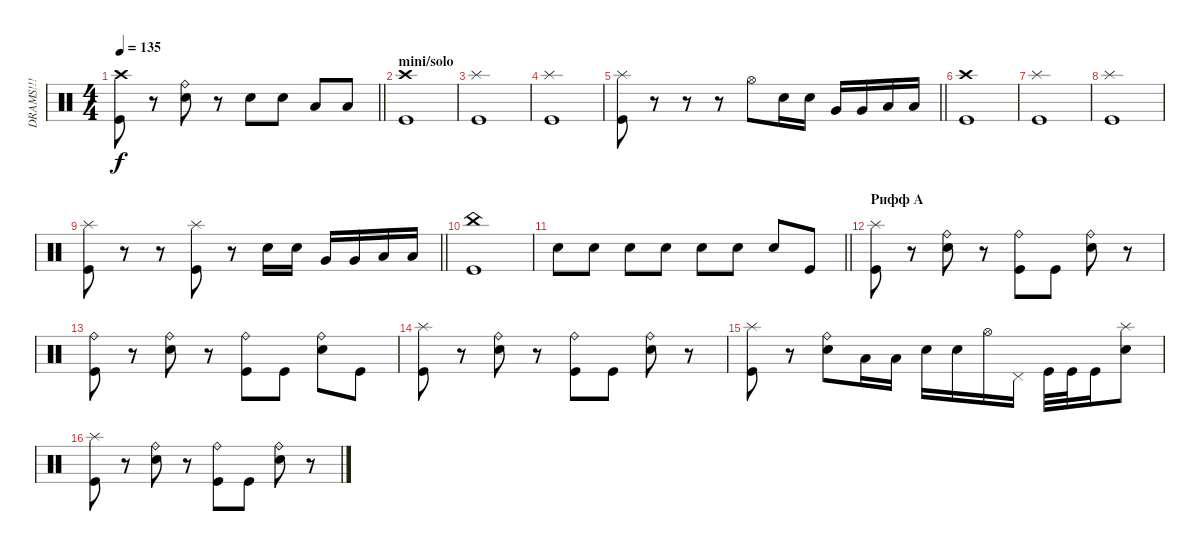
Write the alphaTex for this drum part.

\track ("DRAMS!!!" "DRAMS!!!") {instrument percussion}
\staff {score}
\articulation defaults
\ts (4 4)
\tempo 135
\clef neutral
\barLineRight lightlight
\ks c
("Kick (hit)" "Crash high (hit)").8{dy f} r.8 ("Electric Snare (hit)" "Ride (bell)").8 r.8 "Electric Snare (hit)".8 "Electric Snare (hit)".8 "Low Tom (hit)".8 "Low Tom (hit)".8 |
\section ("" "mini/solo")
("Kick (hit)" "Crash high (hit)").1 |
("Kick (hit)" "Splash (hit)").1 |
("Kick (hit)" "Splash (hit)").1 |
\barLineRight lightlight
("Kick (hit)" "Splash (hit)").8 r.8 r.8 r.8 "Hi-Hat (open)".8 "Electric Snare (hit)".16 "Electric Snare (hit)".16 "Very Low Tom (hit)".16 "Very Low Tom (hit)".16 "Low Tom (hit)".16 "Low Tom (hit)".16 |
("Kick (hit)" "Crash high (hit)").1 |
("Kick (hit)" "Splash (hit)").1 |
("Kick (hit)" "Splash (hit)").1 |
\barLineRight lightlight
("Kick (hit)" "Splash (hit)").8 r.8 r.8 ("Kick (hit)" "Splash (hit)").8 r.8 "Electric Snare (hit)".16 "Electric Snare (hit)".16 "Very Low Tom (hit)".16 "Very Low Tom (hit)".16 "Low Tom (hit)".16 "Low Tom (hit)".16 |
\section ("" "")
("Kick (hit)" "China (hit)").1 |
\barLineRight lightlight "Electric Snare (hit)".8 "Electric Snare (hit)".8 "Electric Snare (hit)".8 "Electric Snare (hit)".8 "Electric Snare (hit)".8 "Electric Snare (hit)".8 "Electric Snare (hit)".8 "Kick (hit)".8
|
\section ("" "Рифф А")
("Kick (hit)" "Splash (hit)").8 r.8 ("Electric Snare (hit)" "Ride (bell)").8 r.8 ("Kick (hit)" "Ride (bell)").8 "Kick (hit)".8 ("Electric Snare (hit)" "Ride (bell)").8 r.8 |
("Kick (hit)" "Ride (bell)").8 r.8 ("Electric Snare (hit)" "Ride (bell)").8 r.8 ("Kick (hit)" "Ride (bell)").8 "Kick (hit)".8 ("Electric Snare (hit)" "Ride (bell)").8 "Kick (hit)".8 |
("Kick (hit)" "Splash (hit)").8 r.8 ("Electric Snare (hit)" "Ride (bell)").8 r.8 ("Kick (hit)" "Ride (bell)").8 "Kick (hit)".8 ("Electric Snare (hit)" "Ride (bell)").8 r.8 |
("Kick (hit)" "Splash (hit)").8 r.8 ("Electric Snare (hit)" "Ride (bell)").8 "Low Tom (hit)".16 "Low Tom (hit)".16 "Electric Snare (hit)".16 "Electric Snare (hit)".16 "Hi-Hat (open)".16 "Pedal Hi-Hat (hit)".16 "Kick (hit)".32 "Kick (hit)".32 "Kick (hit)".16 ("Electric Snare (hit)" "Splash (hit)").8 |
("Kick (hit)" "Splash (hit)").8 r.8 ("Electric Snare (hit)" "Ride (bell)").8 r.8 ("Kick (hit)" "Ride (bell)").8 "Kick (hit)".8 ("Electric Snare (hit)" "Ride (bell)").8 r.8
